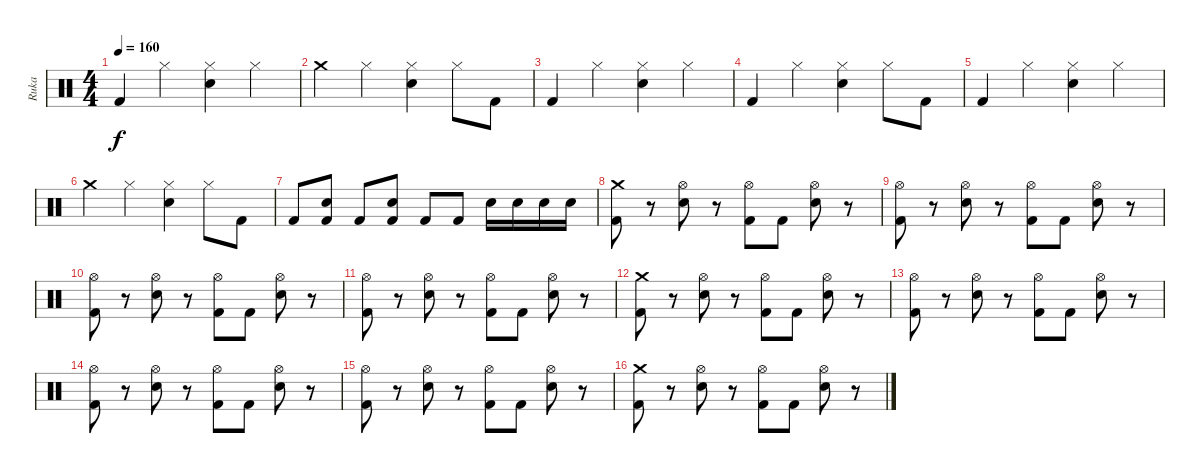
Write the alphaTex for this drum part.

\track ("Ruka" "Ruka") {instrument percussion}
\staff {score}
\articulation defaults
\ts (4 4)
\tempo 160
\clef neutral
\ks c "Kick (hit) 2".4{dy f} "Hi-Hat (closed)".4
("Snare (hit) 2" "Hi-Hat (closed)").4 "Hi-Hat (closed)".4 |
"Crash medium (hit)".4 "Hi-Hat (closed)".4 ("Snare (hit) 2" "Hi-Hat (closed)").4 "Hi-Hat (closed)".8 "Kick (hit) 2".8 |
"Kick (hit) 2".4 "Hi-Hat (closed)".4 ("Snare (hit) 2" "Hi-Hat (closed)").4 "Hi-Hat (closed)".4 |
"Kick (hit) 2".4 "Hi-Hat (closed)".4 ("Snare (hit) 2" "Hi-Hat (closed)").4 "Hi-Hat (closed)".8 "Kick (hit) 2".8 |
"Kick (hit) 2".4 "Hi-Hat (closed)".4 ("Snare (hit) 2" "Hi-Hat (closed)").4 "Hi-Hat (closed)".4 |
"Crash medium (hit)".4 "Hi-Hat (closed)".4 ("Snare (hit) 2" "Hi-Hat (closed)").4 "Hi-Hat (closed)".8 "Kick (hit) 2".8 |
"Kick (hit) 2".8 ("Kick (hit) 2" "Snare (hit) 2").8 "Kick (hit) 2".8 ("Kick (hit) 2" "Snare (hit) 2").8 "Kick (hit) 2".8 "Kick (hit) 2".8 "Snare (hit) 2".16 "Snare (hit) 2".16 "Snare (hit) 2".16 "Snare (hit) 2".16 |
("Kick (hit) 2" "Crash medium (hit)").8 r.8 ("Electric Snare (hit)" "Hi-Hat (open)").8 r.8 ("Kick (hit) 2" "Hi-Hat (open)").8 "Kick (hit) 2".8 ("Electric Snare (hit)" "Hi-Hat (open)").8 r.8 |
("Kick (hit) 2" "Hi-Hat (open)").8 r.8 ("Electric Snare (hit)" "Hi-Hat (open)").8 r.8 ("Kick (hit) 2" "Hi-Hat (open)").8 "Kick (hit) 2".8 ("Electric Snare (hit)" "Hi-Hat (open)").8 r.8 |
("Kick (hit) 2" "Hi-Hat (open)").8 r.8 ("Electric Snare (hit)" "Hi-Hat (open)").8 r.8 ("Kick (hit) 2" "Hi-Hat (open)").8 "Kick (hit) 2".8 ("Electric Snare (hit)" "Hi-Hat (open)").8 r.8 |
("Kick (hit) 2" "Hi-Hat (open)").8 r.8 ("Electric Snare (hit)" "Hi-Hat (open)").8 r.8 ("Kick (hit) 2" "Hi-Hat (open)").8 "Kick (hit) 2".8 ("Electric Snare (hit)" "Hi-Hat (open)").8 r.8 |
("Kick (hit) 2" "Crash medium (hit)").8 r.8 ("Electric Snare (hit)" "Hi-Hat (open)").8 r.8 ("Kick (hit) 2" "Hi-Hat (open)").8 "Kick (hit) 2".8 ("Electric Snare (hit)" "Hi-Hat (open)").8 r.8 |
("Kick (hit) 2" "Hi-Hat (open)").8 r.8 ("Electric Snare (hit)" "Hi-Hat (open)").8 r.8 ("Kick (hit) 2" "Hi-Hat (open)").8 "Kick (hit) 2".8 ("Electric Snare (hit)" "Hi-Hat (open)").8 r.8 |
("Kick (hit) 2" "Hi-Hat (open)").8 r.8 ("Electric Snare (hit)" "Hi-Hat (open)").8 r.8 ("Kick (hit) 2" "Hi-Hat (open)").8 "Kick (hit) 2".8 ("Electric Snare (hit)" "Hi-Hat (open)").8 r.8 |
("Kick (hit) 2" "Hi-Hat (open)").8 r.8 ("Electric Snare (hit)" "Hi-Hat (open)").8 r.8 ("Kick (hit) 2" "Hi-Hat (open)").8 "Kick (hit) 2".8 ("Electric Snare (hit)" "Hi-Hat (open)").8 r.8 |
("Kick (hit) 2" "Crash medium (hit)").8 r.8 ("Electric Snare (hit)" "Hi-Hat (open)").8 r.8 ("Kick (hit) 2" "Hi-Hat (open)").8 "Kick (hit) 2".8 ("Electric Snare (hit)" "Hi-Hat (open)").8 r.8
